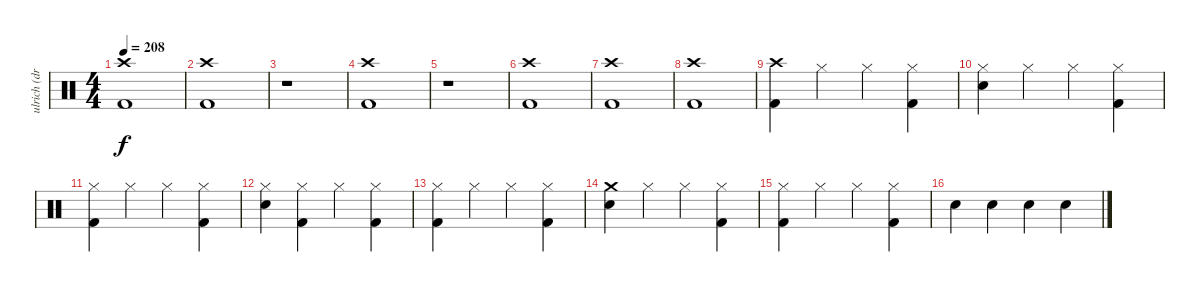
\track ("ulrich (drums)" "ulrich (dr") {instrument percussion}
\staff {score}
\articulation defaults
\ts (4 4)
\tempo 208
\clef neutral
\ks c
("Crash high (hit)" "Kick (hit) 2").1{dy f} |
("Crash high (hit)" "Kick (hit) 2").1 |
r.1 |
("Crash high (hit)" "Kick (hit) 2").1 |
r.1 |
("Crash high (hit)" "Kick (hit) 2").1 |
("Crash high (hit)" "Kick (hit) 2").1 |
("Crash high (hit)" "Kick (hit) 2").1 |
("Crash high (hit)" "Kick (hit) 2").4 "Hi-Hat (closed)".4 "Hi-Hat (closed)".4 ("Hi-Hat (closed)" "Kick (hit) 2").4 |
("Hi-Hat (closed)" "Snare (hit) 2").4 "Hi-Hat (closed)".4 "Hi-Hat (closed)".4 ("Hi-Hat (closed)" "Kick (hit) 2").4 |
("Hi-Hat (closed)" "Kick (hit) 2").4 "Hi-Hat (closed)".4 "Hi-Hat (closed)".4 ("Hi-Hat (closed)" "Kick (hit) 2").4 |
("Hi-Hat (closed)" "Snare (hit) 2").4 ("Hi-Hat (closed)" "Kick (hit) 2").4 "Hi-Hat (closed)".4 ("Hi-Hat (closed)" "Kick (hit) 2").4 |
("Hi-Hat (closed)" "Kick (hit) 2").4 "Hi-Hat (closed)".4 "Hi-Hat (closed)".4 ("Hi-Hat (closed)" "Kick (hit) 2").4 |
("Crash medium (hit)" "Snare (hit) 2").4 "Hi-Hat (closed)".4 "Hi-Hat (closed)".4 ("Hi-Hat (closed)" "Kick (hit) 2").4 |
("Hi-Hat (closed)" "Kick (hit) 2").4 "Hi-Hat (closed)".4 "Hi-Hat (closed)".4 ("Hi-Hat (closed)" "Kick (hit) 2").4 |
"Snare (hit) 2".4 "Snare (hit) 2".4 "Snare (hit) 2".4 "Snare (hit) 2".4
